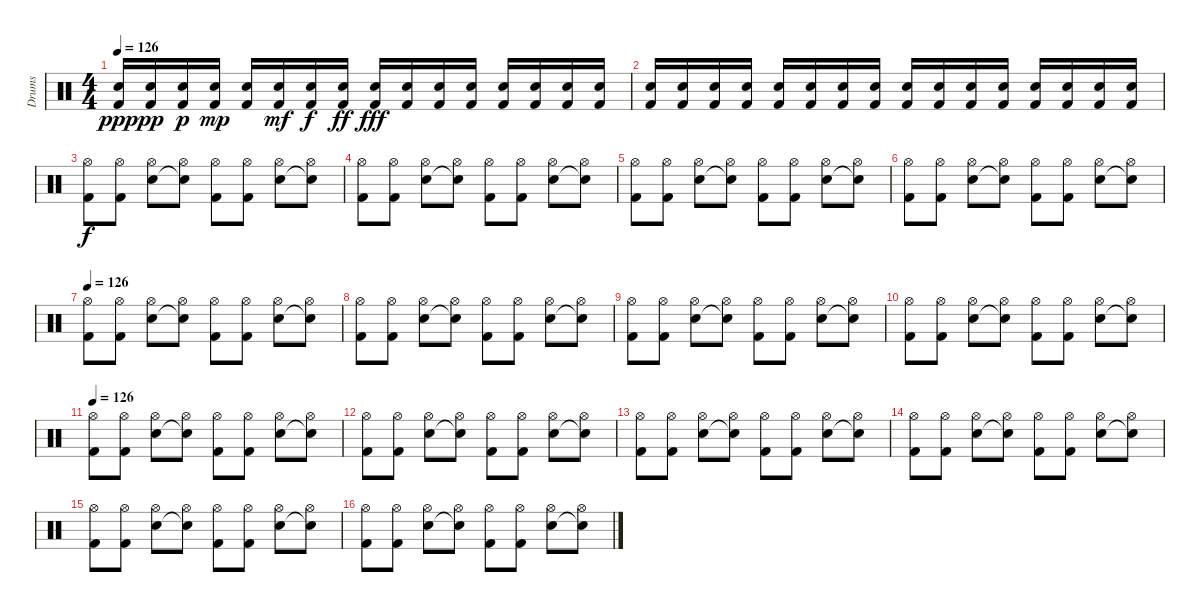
\track ("Drums" "Drums") {instrument percussion}
\staff {score}
\articulation defaults
\ts (4 4)
\tempo 126
\clef neutral
\ks c
("Snare (hit) 2" "Kick (hit) 2").16{dy ppp} ("Snare (hit) 2" "Kick (hit) 2").16{dy pp} ("Snare (hit) 2" "Kick (hit) 2").16{dy p} ("Snare (hit) 2" "Kick (hit) 2").16{dy mp} ("Snare (hit) 2" "Kick (hit) 2").16 ("Snare (hit) 2" "Kick (hit) 2").16{dy mf} ("Snare (hit) 2" "Kick (hit) 2").16{dy f} ("Snare (hit) 2" "Kick (hit) 2").16{dy ff} ("Snare (hit) 2" "Kick (hit) 2").16{dy fff} ("Snare (hit) 2" "Kick (hit) 2").16 ("Snare (hit) 2" "Kick (hit) 2").16 ("Snare (hit) 2" "Kick (hit) 2").16 ("Snare (hit) 2" "Kick (hit) 2").16 ("Snare (hit) 2" "Kick (hit) 2").16 ("Snare (hit) 2" "Kick (hit) 2").16 ("Snare (hit) 2" "Kick (hit) 2").16 |
("Snare (hit) 2" "Kick (hit) 2").16 ("Snare (hit) 2" "Kick (hit) 2").16 ("Snare (hit) 2" "Kick (hit) 2").16 ("Snare (hit) 2" "Kick (hit) 2").16 ("Snare (hit) 2" "Kick (hit) 2").16 ("Snare (hit) 2" "Kick (hit) 2").16 ("Snare (hit) 2" "Kick (hit) 2").16 ("Snare (hit) 2" "Kick (hit) 2").16 ("Snare (hit) 2" "Kick (hit) 2").16 ("Snare (hit) 2" "Kick (hit) 2").16 ("Snare (hit) 2" "Kick (hit) 2").16 ("Snare (hit) 2" "Kick (hit) 2").16 ("Snare (hit) 2" "Kick (hit) 2").16 ("Snare (hit) 2" "Kick (hit) 2").16 ("Snare (hit) 2" "Kick (hit) 2").16 ("Snare (hit) 2" "Kick (hit) 2").16 |
("Hi-Hat (open)" "Kick (hit) 2").8{dy f} ("Hi-Hat (open)" "Kick (hit) 2").8 ("Hi-Hat (open)" "Snare (hit) 2").8 ("Hi-Hat (open)" "Snare (hit) 2"{t}).8 ("Hi-Hat (open)" "Kick (hit) 2").8 ("Hi-Hat (open)" "Kick (hit) 2").8 ("Hi-Hat (open)" "Snare (hit) 2").8 ("Hi-Hat (open)" "Snare (hit) 2"{t}).8 |
("Hi-Hat (open)" "Kick (hit) 2").8 ("Hi-Hat (open)" "Kick (hit) 2").8 ("Hi-Hat (open)" "Snare (hit) 2").8 ("Hi-Hat (open)" "Snare (hit) 2"{t}).8 ("Hi-Hat (open)" "Kick (hit) 2").8 ("Hi-Hat (open)" "Kick (hit) 2").8 ("Hi-Hat (open)" "Snare (hit) 2").8 ("Hi-Hat (open)" "Snare (hit) 2"{t}).8 |
("Hi-Hat (open)" "Kick (hit) 2").8 ("Hi-Hat (open)" "Kick (hit) 2").8 ("Hi-Hat (open)" "Snare (hit) 2").8 ("Hi-Hat (open)" "Snare (hit) 2"{t}).8 ("Hi-Hat (open)" "Kick (hit) 2").8 ("Hi-Hat (open)" "Kick (hit) 2").8 ("Hi-Hat (open)" "Snare (hit) 2").8 ("Hi-Hat (open)" "Snare (hit) 2"{t}).8 |
("Hi-Hat (open)" "Kick (hit) 2").8 ("Hi-Hat (open)" "Kick (hit) 2").8 ("Hi-Hat (open)" "Snare (hit) 2").8 ("Hi-Hat (open)" "Snare (hit) 2"{t}).8 ("Hi-Hat (open)" "Kick (hit) 2").8 ("Hi-Hat (open)" "Kick (hit) 2").8 ("Hi-Hat (open)" "Snare (hit) 2").8 ("Hi-Hat (open)" "Snare (hit) 2"{t}).8 |
\tempo 126
("Hi-Hat (open)" "Kick (hit) 2").8 ("Hi-Hat (open)" "Kick (hit) 2").8 ("Hi-Hat (open)" "Snare (hit) 2").8 ("Hi-Hat (open)" "Snare (hit) 2"{t}).8 ("Hi-Hat (open)" "Kick (hit) 2").8 ("Hi-Hat (open)" "Kick (hit) 2").8 ("Hi-Hat (open)" "Snare (hit) 2").8 ("Hi-Hat (open)" "Snare (hit) 2"{t}).8 |
("Hi-Hat (open)" "Kick (hit) 2").8 ("Hi-Hat (open)" "Kick (hit) 2").8 ("Hi-Hat (open)" "Snare (hit) 2").8 ("Hi-Hat (open)" "Snare (hit) 2"{t}).8 ("Hi-Hat (open)" "Kick (hit) 2").8 ("Hi-Hat (open)" "Kick (hit) 2").8 ("Hi-Hat (open)" "Snare (hit) 2").8 ("Hi-Hat (open)" "Snare (hit) 2"{t}).8 |
("Hi-Hat (open)" "Kick (hit) 2").8 ("Hi-Hat (open)" "Kick (hit) 2").8 ("Hi-Hat (open)" "Snare (hit) 2").8 ("Hi-Hat (open)" "Snare (hit) 2"{t}).8 ("Hi-Hat (open)" "Kick (hit) 2").8 ("Hi-Hat (open)" "Kick (hit) 2").8 ("Hi-Hat (open)" "Snare (hit) 2").8 ("Hi-Hat (open)" "Snare (hit) 2"{t}).8 |
("Hi-Hat (open)" "Kick (hit) 2").8 ("Hi-Hat (open)" "Kick (hit) 2").8 ("Hi-Hat (open)" "Snare (hit) 2").8 ("Hi-Hat (open)" "Snare (hit) 2"{t}).8 ("Hi-Hat (open)" "Kick (hit) 2").8 ("Hi-Hat (open)" "Kick (hit) 2").8 ("Hi-Hat (open)" "Snare (hit) 2").8 ("Hi-Hat (open)" "Snare (hit) 2"{t}).8 |
\tempo 126
("Hi-Hat (open)" "Kick (hit) 2").8 ("Hi-Hat (open)" "Kick (hit) 2").8 ("Hi-Hat (open)" "Snare (hit) 2").8 ("Hi-Hat (open)" "Snare (hit) 2"{t}).8 ("Hi-Hat (open)" "Kick (hit) 2").8 ("Hi-Hat (open)" "Kick (hit) 2").8 ("Hi-Hat (open)" "Snare (hit) 2").8 ("Hi-Hat (open)" "Snare (hit) 2"{t}).8 |
("Hi-Hat (open)" "Kick (hit) 2").8 ("Hi-Hat (open)" "Kick (hit) 2").8 ("Hi-Hat (open)" "Snare (hit) 2").8 ("Hi-Hat (open)" "Snare (hit) 2"{t}).8 ("Hi-Hat (open)" "Kick (hit) 2").8 ("Hi-Hat (open)" "Kick (hit) 2").8 ("Hi-Hat (open)" "Snare (hit) 2").8 ("Hi-Hat (open)" "Snare (hit) 2"{t}).8 |
("Hi-Hat (open)" "Kick (hit) 2").8 ("Hi-Hat (open)" "Kick (hit) 2").8 ("Hi-Hat (open)" "Snare (hit) 2").8 ("Hi-Hat (open)" "Snare (hit) 2"{t}).8 ("Hi-Hat (open)" "Kick (hit) 2").8 ("Hi-Hat (open)" "Kick (hit) 2").8 ("Hi-Hat (open)" "Snare (hit) 2").8 ("Hi-Hat (open)" "Snare (hit) 2"{t}).8 |
("Hi-Hat (open)" "Kick (hit) 2").8 ("Hi-Hat (open)" "Kick (hit) 2").8 ("Hi-Hat (open)" "Snare (hit) 2").8 ("Hi-Hat (open)" "Snare (hit) 2"{t}).8 ("Hi-Hat (open)" "Kick (hit) 2").8 ("Hi-Hat (open)" "Kick (hit) 2").8 ("Hi-Hat (open)" "Snare (hit) 2").8 ("Hi-Hat (open)" "Snare (hit) 2"{t}).8 |
("Hi-Hat (open)" "Kick (hit) 2").8 ("Hi-Hat (open)" "Kick (hit) 2").8 ("Hi-Hat (open)" "Snare (hit) 2").8 ("Hi-Hat (open)" "Snare (hit) 2"{t}).8 ("Hi-Hat (open)" "Kick (hit) 2").8 ("Hi-Hat (open)" "Kick (hit) 2").8 ("Hi-Hat (open)" "Snare (hit) 2").8 ("Hi-Hat (open)" "Snare (hit) 2"{t}).8 |
("Hi-Hat (open)" "Kick (hit) 2").8 ("Hi-Hat (open)" "Kick (hit) 2").8 ("Hi-Hat (open)" "Snare (hit) 2").8 ("Hi-Hat (open)" "Snare (hit) 2"{t}).8 ("Hi-Hat (open)" "Kick (hit) 2").8 ("Hi-Hat (open)" "Kick (hit) 2").8 ("Hi-Hat (open)" "Snare (hit) 2").8 ("Hi-Hat (open)" "Snare (hit) 2"{t}).8
